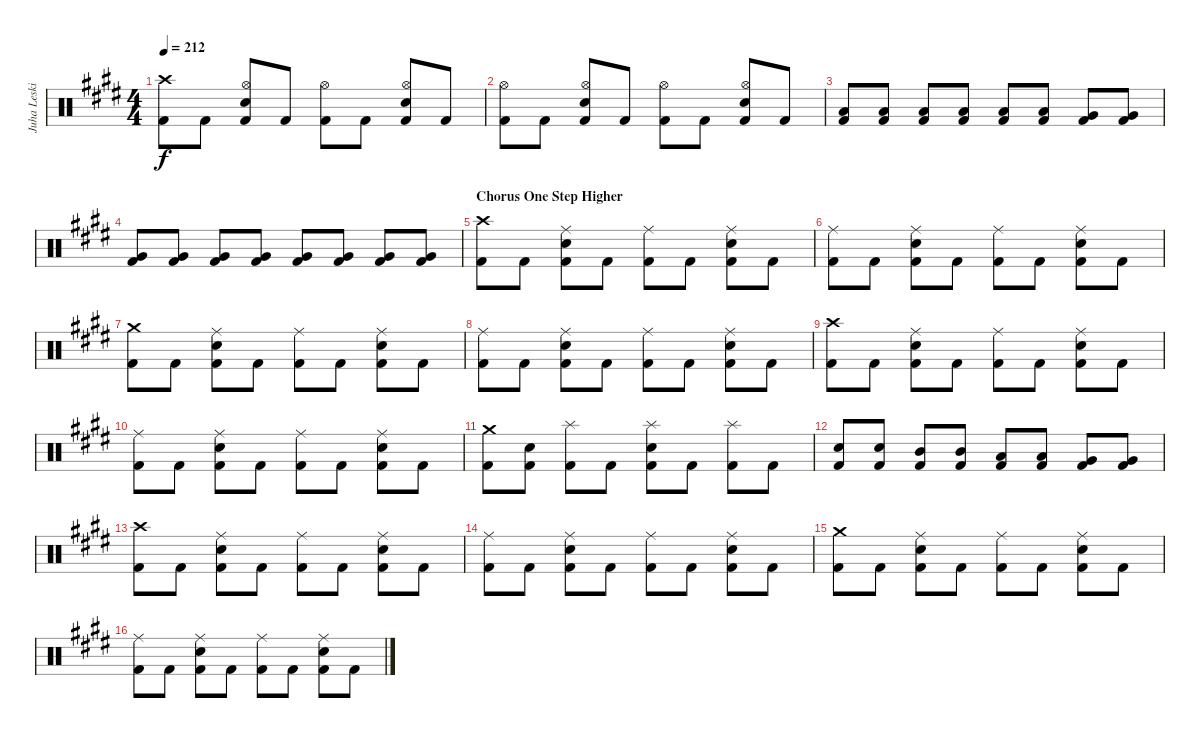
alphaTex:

\track ("Juha Leskinen - Drums" "Juha Leski") {instrument percussion}
\staff {score}
\articulation defaults
\ts (4 4)
\tempo 212
\clef neutral
\ks c#minor
("Crash high (hit)" "Kick (hit) 2").8{dy f} "Kick (hit) 2".8 ("Hi-Hat (open)" "Electric Snare (hit)" "Kick (hit) 2").8 "Kick (hit) 2".8 ("Hi-Hat (open)" "Kick (hit) 2").8 "Kick (hit) 2".8 ("Hi-Hat (open)" "Electric Snare (hit)" "Kick (hit) 2").8 "Kick (hit) 2".8 |
("Hi-Hat (open)" "Kick (hit) 2").8 "Kick (hit) 2".8 ("Hi-Hat (open)" "Electric Snare (hit)" "Kick (hit) 2").8 "Kick (hit) 2".8 ("Hi-Hat (open)" "Kick (hit) 2").8 "Kick (hit) 2".8 ("Hi-Hat (open)" "Electric Snare (hit)" "Kick (hit) 2").8 "Kick (hit) 2".8 |
("Low Tom (hit)" "Kick (hit) 2").8 ("Low Tom (hit)" "Kick (hit) 2").8 ("Low Tom (hit)" "Kick (hit) 2").8 ("Low Tom (hit)" "Kick (hit) 2").8 ("Low Tom (hit)" "Kick (hit) 2").8 ("Low Tom (hit)" "Kick (hit) 2").8 ("Very Low Tom (hit)" "Kick (hit) 2").8 ("Very Low Tom (hit)" "Kick (hit) 2").8 |
("Very Low Tom (hit)" "Kick (hit) 2").8 ("Very Low Tom (hit)" "Kick (hit) 2").8 ("Very Low Tom (hit)" "Kick (hit) 2").8 ("Very Low Tom (hit)" "Kick (hit) 2").8 ("Very Low Tom (hit)" "Kick (hit) 2").8 ("Very Low Tom (hit)" "Kick (hit) 2").8 ("Very Low Tom (hit)" "Kick (hit) 2").8 ("Very Low Tom (hit)" "Kick (hit) 2").8 |
\section ("" "Chorus One Step Higher")
("Crash high (hit)" "Kick (hit) 2").8 "Kick (hit) 2".8 ("Ride (middle)" "Electric Snare (hit)" "Kick (hit) 2").8 "Kick (hit) 2".8 ("Ride (middle)" "Kick (hit) 2").8 "Kick (hit) 2".8 ("Ride (middle)" "Electric Snare (hit)" "Kick (hit) 2").8 "Kick (hit) 2".8 |
("Ride (middle)" "Kick (hit) 2").8 "Kick (hit) 2".8 ("Ride (middle)" "Electric Snare (hit)" "Kick (hit) 2").8 "Kick (hit) 2".8 ("Ride (middle)" "Kick (hit) 2").8 "Kick (hit) 2".8 ("Ride (middle)" "Electric Snare (hit)" "Kick (hit) 2").8 "Kick (hit) 2".8 |
("Crash medium (hit)" "Kick (hit) 2").8 "Kick (hit) 2".8 ("Ride (middle)" "Electric Snare (hit)" "Kick (hit) 2").8 "Kick (hit) 2".8 ("Ride (middle)" "Kick (hit) 2").8 "Kick (hit) 2".8 ("Ride (middle)" "Electric Snare (hit)" "Kick (hit) 2").8 "Kick (hit) 2".8 |
("Ride (middle)" "Kick (hit) 2").8 "Kick (hit) 2".8 ("Ride (middle)" "Electric Snare (hit)" "Kick (hit) 2").8 "Kick (hit) 2".8 ("Ride (middle)" "Kick (hit) 2").8 "Kick (hit) 2".8 ("Ride (middle)" "Electric Snare (hit)" "Kick (hit) 2").8 "Kick (hit) 2".8 |
("Crash high (hit)" "Kick (hit) 2").8 "Kick (hit) 2".8 ("Ride (middle)" "Electric Snare (hit)" "Kick (hit) 2").8 "Kick (hit) 2".8 ("Ride (middle)" "Kick (hit) 2").8 "Kick (hit) 2".8 ("Ride (middle)" "Electric Snare (hit)" "Kick (hit) 2").8 "Kick (hit) 2".8 |
("Ride (middle)" "Kick (hit) 2").8 "Kick (hit) 2".8 ("Ride (middle)" "Electric Snare (hit)" "Kick (hit) 2").8 "Kick (hit) 2".8 ("Ride (middle)" "Kick (hit) 2").8 "Kick (hit) 2".8 ("Ride (middle)" "Electric Snare (hit)" "Kick (hit) 2").8 "Kick (hit) 2".8 |
("Crash medium (hit)" "Kick (hit) 2").8 ("Electric Snare (hit)" "Kick (hit) 2").8 ("Splash (hit)" "Kick (hit) 2").8 "Kick (hit) 2".8 ("Splash (hit)" "Electric Snare (hit)" "Kick (hit) 2").8 "Kick (hit) 2".8 ("Splash (hit)" "Kick (hit) 2").8 "Kick (hit) 2".8 |
("Electric Snare (hit)" "Kick (hit) 2").8 ("Electric Snare (hit)" "Kick (hit) 2").8 ("Mid Tom (hit)" "Kick (hit) 2").8 ("Mid Tom (hit)" "Kick (hit) 2").8 ("Low Tom (hit)" "Kick (hit) 2").8 ("Low Tom (hit)" "Kick (hit) 2").8 ("Very Low Tom (hit)" "Kick (hit) 2").8 ("Very Low Tom (hit)" "Kick (hit) 2").8 |
("Crash high (hit)" "Kick (hit) 2").8 "Kick (hit) 2".8 ("Ride (middle)" "Electric Snare (hit)" "Kick (hit) 2").8 "Kick (hit) 2".8 ("Ride (middle)" "Kick (hit) 2").8 "Kick (hit) 2".8 ("Ride (middle)" "Electric Snare (hit)" "Kick (hit) 2").8 "Kick (hit) 2".8 |
("Ride (middle)" "Kick (hit) 2").8 "Kick (hit) 2".8 ("Ride (middle)" "Electric Snare (hit)" "Kick (hit) 2").8 "Kick (hit) 2".8 ("Ride (middle)" "Kick (hit) 2").8 "Kick (hit) 2".8 ("Ride (middle)" "Electric Snare (hit)" "Kick (hit) 2").8 "Kick (hit) 2".8 |
("Crash medium (hit)" "Kick (hit) 2").8 "Kick (hit) 2".8 ("Ride (middle)" "Electric Snare (hit)" "Kick (hit) 2").8 "Kick (hit) 2".8 ("Ride (middle)" "Kick (hit) 2").8 "Kick (hit) 2".8 ("Ride (middle)" "Electric Snare (hit)" "Kick (hit) 2").8 "Kick (hit) 2".8 |
("Ride (middle)" "Kick (hit) 2").8 "Kick (hit) 2".8 ("Ride (middle)" "Electric Snare (hit)" "Kick (hit) 2").8 "Kick (hit) 2".8 ("Ride (middle)" "Kick (hit) 2").8 "Kick (hit) 2".8 ("Ride (middle)" "Electric Snare (hit)" "Kick (hit) 2").8 "Kick (hit) 2".8
